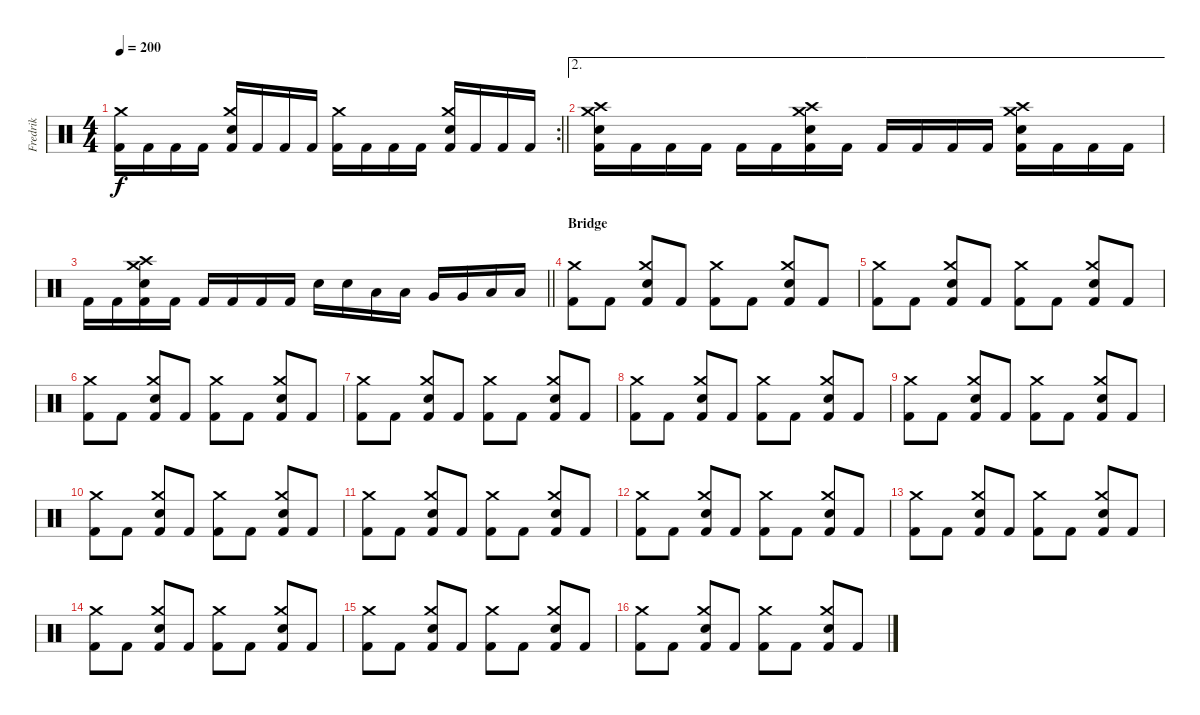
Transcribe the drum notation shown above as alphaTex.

\track ("Fredrik" "Fredrik") {instrument percussion}
\staff {score}
\articulation defaults
\rc 2
\ts (4 4)
\tempo 200
\clef neutral
\barLineRight lightlight
\ks c
("Kick (hit) 2" "Crash medium (hit)").16{dy f} "Kick (hit) 2".16 "Kick (hit) 2".16 "Kick (hit) 2".16 ("Kick (hit) 2" "Snare (hit) 2" "Crash medium (hit)").16 "Kick (hit) 2".16 "Kick (hit) 2".16 "Kick (hit) 2".16 ("Kick (hit) 2" "Crash medium (hit)").16 "Kick (hit) 2".16 "Kick (hit) 2".16 "Kick (hit) 2".16 ("Kick (hit) 2" "Snare (hit) 2" "Crash medium (hit)").16 "Kick (hit) 2".16 "Kick (hit) 2".16 "Kick (hit) 2".16 |
\ae 2
("Kick (hit) 2" "Snare (hit) 2" "Crash medium (hit)" "Crash high (hit)").16 "Kick (hit) 2".16 "Kick (hit) 2".16 "Kick (hit) 2".16 "Kick (hit) 2".16 "Kick (hit) 2".16 ("Kick (hit) 2" "Snare (hit) 2" "Crash medium (hit)" "Crash high (hit)").16 "Kick (hit) 2".16 "Kick (hit) 2".16 "Kick (hit) 2".16 "Kick (hit) 2".16 "Kick (hit) 2".16 ("Kick (hit) 2" "Snare (hit) 2" "Crash medium (hit)" "Crash high (hit)").16 "Kick (hit) 2".16 "Kick (hit) 2".16 "Kick (hit) 2".16 |
\barLineRight lightlight "Kick (hit) 2".16 "Kick (hit) 2".16
("Kick (hit) 2" "Snare (hit) 2" "Crash medium (hit)" "Crash high (hit)").16 "Kick (hit) 2".16 "Kick (hit) 2".16 "Kick (hit) 2".16 "Kick (hit) 2".16 "Kick (hit) 2".16 "Snare (hit) 2".16 "Snare (hit) 2".16 "Low Tom (hit)".16 "Low Tom (hit)".16 "Very Low Tom (hit)".16 "Very Low Tom (hit)".16 "Low Floor Tom (hit)".16 "Low Floor Tom (hit)".16 |
\section ("" "Bridge")
("Kick (hit) 2" "Crash medium (hit)").8 "Kick (hit) 2".8 ("Kick (hit) 2" "Snare (hit) 2" "Crash medium (hit)").8 "Kick (hit) 2".8 ("Kick (hit) 2" "Crash medium (hit)").8 "Kick (hit) 2".8 ("Kick (hit) 2" "Snare (hit) 2" "Crash medium (hit)").8 "Kick (hit) 2".8 |
("Kick (hit) 2" "Crash medium (hit)").8 "Kick (hit) 2".8 ("Kick (hit) 2" "Snare (hit) 2" "Crash medium (hit)").8 "Kick (hit) 2".8 ("Kick (hit) 2" "Crash medium (hit)").8 "Kick (hit) 2".8 ("Kick (hit) 2" "Snare (hit) 2" "Crash medium (hit)").8 "Kick (hit) 2".8 |
("Kick (hit) 2" "Crash medium (hit)").8 "Kick (hit) 2".8 ("Kick (hit) 2" "Snare (hit) 2" "Crash medium (hit)").8 "Kick (hit) 2".8 ("Kick (hit) 2" "Crash medium (hit)").8 "Kick (hit) 2".8 ("Kick (hit) 2" "Snare (hit) 2" "Crash medium (hit)").8 "Kick (hit) 2".8 |
("Kick (hit) 2" "Crash medium (hit)").8 "Kick (hit) 2".8 ("Kick (hit) 2" "Snare (hit) 2" "Crash medium (hit)").8 "Kick (hit) 2".8 ("Kick (hit) 2" "Crash medium (hit)").8 "Kick (hit) 2".8 ("Kick (hit) 2" "Snare (hit) 2" "Crash medium (hit)").8 "Kick (hit) 2".8 |
("Kick (hit) 2" "Crash medium (hit)").8 "Kick (hit) 2".8 ("Kick (hit) 2" "Snare (hit) 2" "Crash medium (hit)").8 "Kick (hit) 2".8 ("Kick (hit) 2" "Crash medium (hit)").8 "Kick (hit) 2".8 ("Kick (hit) 2" "Snare (hit) 2" "Crash medium (hit)").8 "Kick (hit) 2".8 |
("Kick (hit) 2" "Crash medium (hit)").8 "Kick (hit) 2".8 ("Kick (hit) 2" "Snare (hit) 2" "Crash medium (hit)").8 "Kick (hit) 2".8 ("Kick (hit) 2" "Crash medium (hit)").8 "Kick (hit) 2".8 ("Kick (hit) 2" "Snare (hit) 2" "Crash medium (hit)").8 "Kick (hit) 2".8 |
("Kick (hit) 2" "Crash medium (hit)").8 "Kick (hit) 2".8 ("Kick (hit) 2" "Snare (hit) 2" "Crash medium (hit)").8 "Kick (hit) 2".8 ("Kick (hit) 2" "Crash medium (hit)").8 "Kick (hit) 2".8 ("Kick (hit) 2" "Snare (hit) 2" "Crash medium (hit)").8 "Kick (hit) 2".8 |
("Kick (hit) 2" "Crash medium (hit)").8 "Kick (hit) 2".8 ("Kick (hit) 2" "Snare (hit) 2" "Crash medium (hit)").8 "Kick (hit) 2".8 ("Kick (hit) 2" "Crash medium (hit)").8 "Kick (hit) 2".8 ("Kick (hit) 2" "Snare (hit) 2" "Crash medium (hit)").8 "Kick (hit) 2".8 |
("Kick (hit) 2" "Crash medium (hit)").8 "Kick (hit) 2".8 ("Kick (hit) 2" "Snare (hit) 2" "Crash medium (hit)").8 "Kick (hit) 2".8 ("Kick (hit) 2" "Crash medium (hit)").8 "Kick (hit) 2".8 ("Kick (hit) 2" "Snare (hit) 2" "Crash medium (hit)").8 "Kick (hit) 2".8 |
("Kick (hit) 2" "Crash medium (hit)").8 "Kick (hit) 2".8 ("Kick (hit) 2" "Snare (hit) 2" "Crash medium (hit)").8 "Kick (hit) 2".8 ("Kick (hit) 2" "Crash medium (hit)").8 "Kick (hit) 2".8 ("Kick (hit) 2" "Snare (hit) 2" "Crash medium (hit)").8 "Kick (hit) 2".8 |
("Kick (hit) 2" "Crash medium (hit)").8 "Kick (hit) 2".8 ("Kick (hit) 2" "Snare (hit) 2" "Crash medium (hit)").8 "Kick (hit) 2".8 ("Kick (hit) 2" "Crash medium (hit)").8 "Kick (hit) 2".8 ("Kick (hit) 2" "Snare (hit) 2" "Crash medium (hit)").8 "Kick (hit) 2".8 |
("Kick (hit) 2" "Crash medium (hit)").8 "Kick (hit) 2".8 ("Kick (hit) 2" "Snare (hit) 2" "Crash medium (hit)").8 "Kick (hit) 2".8 ("Kick (hit) 2" "Crash medium (hit)").8 "Kick (hit) 2".8 ("Kick (hit) 2" "Snare (hit) 2" "Crash medium (hit)").8 "Kick (hit) 2".8 |
("Kick (hit) 2" "Crash medium (hit)").8 "Kick (hit) 2".8 ("Kick (hit) 2" "Snare (hit) 2" "Crash medium (hit)").8 "Kick (hit) 2".8 ("Kick (hit) 2" "Crash medium (hit)").8 "Kick (hit) 2".8 ("Kick (hit) 2" "Snare (hit) 2" "Crash medium (hit)").8 "Kick (hit) 2".8
